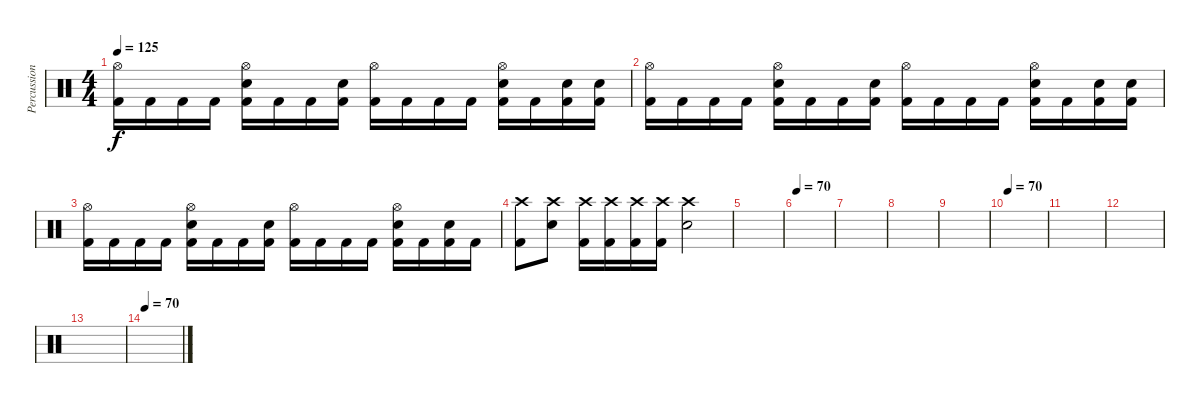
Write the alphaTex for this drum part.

\track ("Percussion - [Drums]" "Percussion") {instrument percussion}
\staff {score}
\articulation defaults
\ts (4 4)
\tempo 125
\clef neutral
\ks c
("Hi-Hat (open)" "Kick (hit) 2").16{dy f} "Kick (hit) 2".16 "Kick (hit) 2".16 "Kick (hit) 2".16 ("Hi-Hat (open)" "Snare (hit) 2" "Kick (hit) 2").16 "Kick (hit) 2".16 "Kick (hit) 2".16 ("Snare (hit) 2" "Kick (hit) 2").16 ("Hi-Hat (open)" "Kick (hit) 2").16 "Kick (hit) 2".16 "Kick (hit) 2".16 "Kick (hit) 2".16 ("Hi-Hat (open)" "Snare (hit) 2" "Kick (hit) 2").16 "Kick (hit) 2".16 ("Snare (hit) 2" "Kick (hit) 2").16 ("Snare (hit) 2" "Kick (hit) 2").16 |
("Hi-Hat (open)" "Kick (hit) 2").16 "Kick (hit) 2".16 "Kick (hit) 2".16 "Kick (hit) 2".16 ("Hi-Hat (open)" "Snare (hit) 2" "Kick (hit) 2").16 "Kick (hit) 2".16 "Kick (hit) 2".16 ("Snare (hit) 2" "Kick (hit) 2").16 ("Hi-Hat (open)" "Kick (hit) 2").16 "Kick (hit) 2".16 "Kick (hit) 2".16 "Kick (hit) 2".16 ("Hi-Hat (open)" "Snare (hit) 2" "Kick (hit) 2").16 "Kick (hit) 2".16 ("Snare (hit) 2" "Kick (hit) 2").16 ("Snare (hit) 2" "Kick (hit) 2").16 |
("Hi-Hat (open)" "Kick (hit) 2").16 "Kick (hit) 2".16 "Kick (hit) 2".16 "Kick (hit) 2".16 ("Hi-Hat (open)" "Snare (hit) 2" "Kick (hit) 2").16 "Kick (hit) 2".16 "Kick (hit) 2".16 ("Snare (hit) 2" "Kick (hit) 2").16 ("Hi-Hat (open)" "Kick (hit) 2").16 "Kick (hit) 2".16 "Kick (hit) 2".16 "Kick (hit) 2".16 ("Hi-Hat (open)" "Snare (hit) 2" "Kick (hit) 2").16 "Kick (hit) 2".16 ("Snare (hit) 2" "Kick (hit) 2").16 "Kick (hit) 2".16 |
("Crash high (hit)" "Kick (hit) 2").8 ("Crash high (hit)" "Snare (hit) 2").8 ("Crash high (hit)" "Kick (hit) 2").16 ("Crash high (hit)" "Kick (hit) 2").16 ("Crash high (hit)" "Kick (hit) 2").16 ("Crash high (hit)" "Kick (hit) 2").16 ("Crash high (hit)" "Snare (hit) 2").2 |
|
\tempo 70
|
|
|
|
\tempo 70
|
|
|
|
\tempo 70
